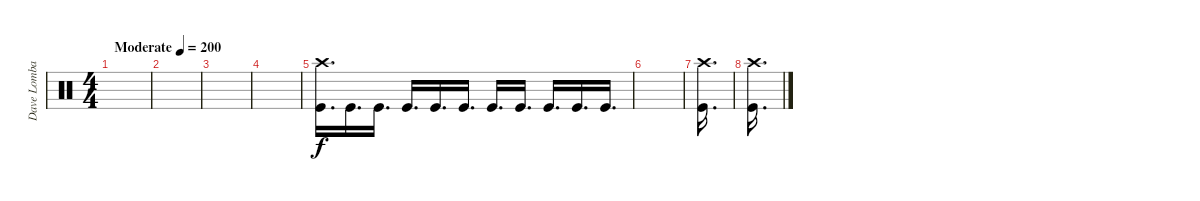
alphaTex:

\track ("Dave Lombardo" "Dave Lomba") {instrument percussion}
\staff {score}
\articulation defaults
\ts (4 4)
\tempo (200 "Moderate")
\clef neutral
\ks c
|
|
|
|
("Kick (hit)" "Crash high (hit)").16{d} "Kick (hit)".16{d} "Kick (hit)".16{d} "Kick (hit)".16{d} "Kick (hit)".16{d} "Kick (hit)".16{d} "Kick (hit)".16{d} "Kick (hit)".16{d} "Kick (hit)".16{d} "Kick (hit)".16{d} "Kick (hit)".16{d} |
|
("Kick (hit)" "Crash high (hit)").16{d} |
("Kick (hit)" "Crash high (hit)").16{d}
